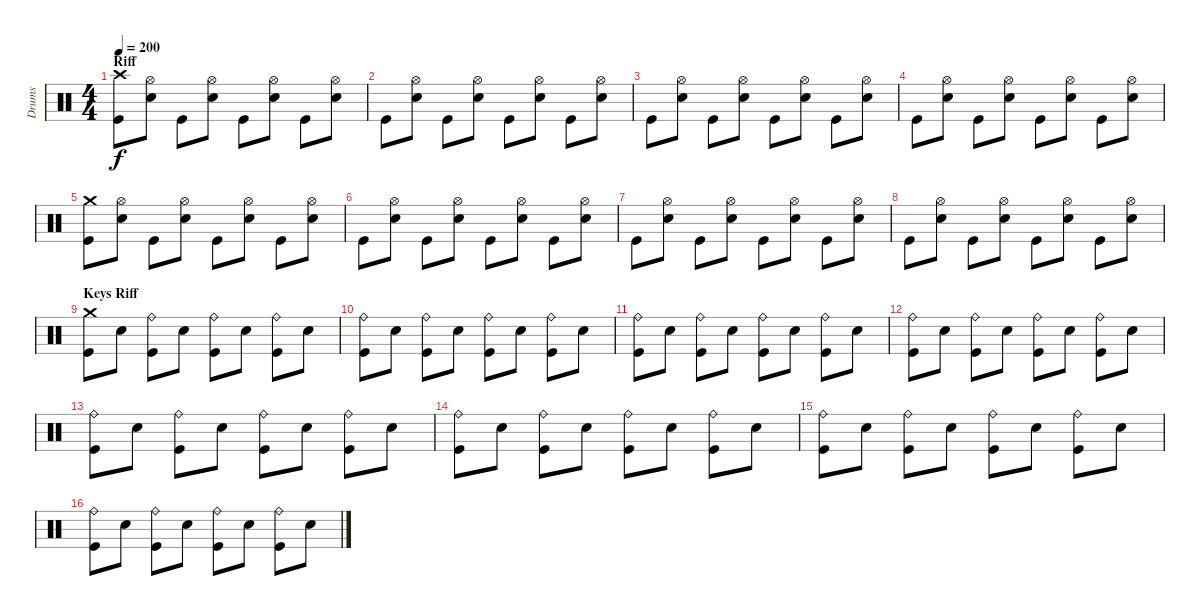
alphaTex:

\track ("Drums" "Drums") {instrument percussion}
\staff {score}
\articulation defaults
\ts (4 4)
\section ("" "Riff")
\tempo 200
\clef neutral
\ks c
("Crash high (hit)" "Kick (hit)").8{dy f} ("Hi-Hat (open)" "Electric Snare (hit)").8 "Kick (hit)".8 ("Hi-Hat (open)" "Electric Snare (hit)").8 "Kick (hit)".8 ("Hi-Hat (open)" "Electric Snare (hit)").8 "Kick (hit)".8 ("Hi-Hat (open)" "Electric Snare (hit)").8 |
"Kick (hit)".8 ("Hi-Hat (open)" "Electric Snare (hit)").8 "Kick (hit)".8 ("Hi-Hat (open)" "Electric Snare (hit)").8 "Kick (hit)".8 ("Hi-Hat (open)" "Electric Snare (hit)").8 "Kick (hit)".8 ("Hi-Hat (open)" "Electric Snare (hit)").8 |
"Kick (hit)".8 ("Hi-Hat (open)" "Electric Snare (hit)").8 "Kick (hit)".8 ("Hi-Hat (open)" "Electric Snare (hit)").8 "Kick (hit)".8 ("Hi-Hat (open)" "Electric Snare (hit)").8 "Kick (hit)".8 ("Hi-Hat (open)" "Electric Snare (hit)").8 |
"Kick (hit)".8 ("Hi-Hat (open)" "Electric Snare (hit)").8 "Kick (hit)".8 ("Hi-Hat (open)" "Electric Snare (hit)").8 "Kick (hit)".8 ("Hi-Hat (open)" "Electric Snare (hit)").8 "Kick (hit)".8 ("Hi-Hat (open)" "Electric Snare (hit)").8 |
("Crash medium (hit)" "Kick (hit)").8 ("Hi-Hat (open)" "Electric Snare (hit)").8 "Kick (hit)".8 ("Hi-Hat (open)" "Electric Snare (hit)").8 "Kick (hit)".8 ("Hi-Hat (open)" "Electric Snare (hit)").8 "Kick (hit)".8 ("Hi-Hat (open)" "Electric Snare (hit)").8 |
"Kick (hit)".8 ("Hi-Hat (open)" "Electric Snare (hit)").8 "Kick (hit)".8 ("Hi-Hat (open)" "Electric Snare (hit)").8 "Kick (hit)".8 ("Hi-Hat (open)" "Electric Snare (hit)").8 "Kick (hit)".8 ("Hi-Hat (open)" "Electric Snare (hit)").8 |
"Kick (hit)".8 ("Hi-Hat (open)" "Electric Snare (hit)").8 "Kick (hit)".8 ("Hi-Hat (open)" "Electric Snare (hit)").8 "Kick (hit)".8 ("Hi-Hat (open)" "Electric Snare (hit)").8 "Kick (hit)".8 ("Hi-Hat (open)" "Electric Snare (hit)").8 |
"Kick (hit)".8 ("Hi-Hat (open)" "Electric Snare (hit)").8 "Kick (hit)".8 ("Hi-Hat (open)" "Electric Snare (hit)").8 "Kick (hit)".8 ("Hi-Hat (open)" "Electric Snare (hit)").8 "Kick (hit)".8 ("Hi-Hat (open)" "Electric Snare (hit)").8 |
\section ("" "Keys Riff")
("Crash medium (hit)" "Kick (hit)").8 "Electric Snare (hit)".8 ("Ride (bell)" "Kick (hit)").8 "Electric Snare (hit)".8 ("Ride (bell)" "Kick (hit)").8 "Electric Snare (hit)".8 ("Ride (bell)" "Kick (hit)").8 "Electric Snare (hit)".8 |
("Ride (bell)" "Kick (hit)").8 "Electric Snare (hit)".8 ("Ride (bell)" "Kick (hit)").8 "Electric Snare (hit)".8 ("Ride (bell)" "Kick (hit)").8 "Electric Snare (hit)".8 ("Ride (bell)" "Kick (hit)").8 "Electric Snare (hit)".8 |
("Ride (bell)" "Kick (hit)").8 "Electric Snare (hit)".8 ("Ride (bell)" "Kick (hit)").8 "Electric Snare (hit)".8 ("Ride (bell)" "Kick (hit)").8 "Electric Snare (hit)".8 ("Ride (bell)" "Kick (hit)").8 "Electric Snare (hit)".8 |
("Ride (bell)" "Kick (hit)").8 "Electric Snare (hit)".8 ("Ride (bell)" "Kick (hit)").8 "Electric Snare (hit)".8 ("Ride (bell)" "Kick (hit)").8 "Electric Snare (hit)".8 ("Ride (bell)" "Kick (hit)").8 "Electric Snare (hit)".8 |
("Ride (bell)" "Kick (hit)").8 "Electric Snare (hit)".8 ("Ride (bell)" "Kick (hit)").8 "Electric Snare (hit)".8 ("Ride (bell)" "Kick (hit)").8 "Electric Snare (hit)".8 ("Ride (bell)" "Kick (hit)").8 "Electric Snare (hit)".8 |
("Ride (bell)" "Kick (hit)").8 "Electric Snare (hit)".8 ("Ride (bell)" "Kick (hit)").8 "Electric Snare (hit)".8 ("Ride (bell)" "Kick (hit)").8 "Electric Snare (hit)".8 ("Ride (bell)" "Kick (hit)").8 "Electric Snare (hit)".8 |
("Ride (bell)" "Kick (hit)").8 "Electric Snare (hit)".8 ("Ride (bell)" "Kick (hit)").8 "Electric Snare (hit)".8 ("Ride (bell)" "Kick (hit)").8 "Electric Snare (hit)".8 ("Ride (bell)" "Kick (hit)").8 "Electric Snare (hit)".8 |
("Ride (bell)" "Kick (hit)").8 "Electric Snare (hit)".8 ("Ride (bell)" "Kick (hit)").8 "Electric Snare (hit)".8 ("Ride (bell)" "Kick (hit)").8 "Electric Snare (hit)".8 ("Ride (bell)" "Kick (hit)").8 "Electric Snare (hit)".8
